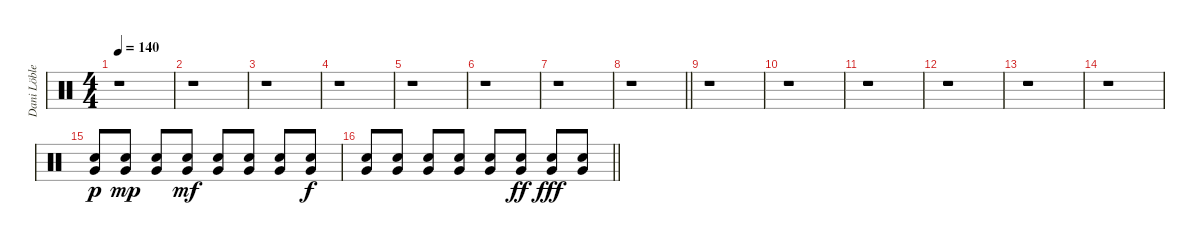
\track ("Dani Löble" "Dani Löble") {instrument percussion}
\staff {score}
\articulation defaults
\ts (4 4)
\section ("" "")
\tempo 140
\clef neutral
\ks c
r.1{dy p} |
r.1 |
r.1 |
r.1 |
r.1 |
r.1 |
r.1 |
\barLineRight lightlight
r.1 |
\section ("" "")
r.1 |
r.1 |
r.1 |
r.1 |
r.1 |
r.1 |
("Electric Snare (hit)" "Very Low Tom (hit)").8 ("Electric Snare (hit)" "Very Low Tom (hit)").8{dy mp} ("Electric Snare (hit)" "Very Low Tom (hit)").8 ("Electric Snare (hit)" "Very Low Tom (hit)").8{dy mf} ("Electric Snare (hit)" "Very Low Tom (hit)").8 ("Electric Snare (hit)" "Very Low Tom (hit)").8 ("Electric Snare (hit)" "Very Low Tom (hit)").8 ("Electric Snare (hit)" "Very Low Tom (hit)").8{dy f} |
\barLineRight lightlight
("Electric Snare (hit)" "Very Low Tom (hit)").8 ("Electric Snare (hit)" "Very Low Tom (hit)").8 ("Electric Snare (hit)" "Very Low Tom (hit)").8 ("Electric Snare (hit)" "Very Low Tom (hit)").8 ("Electric Snare (hit)" "Very Low Tom (hit)").8 ("Electric Snare (hit)" "Very Low Tom (hit)").8{dy ff} ("Electric Snare (hit)" "Very Low Tom (hit)").8{dy fff} ("Electric Snare (hit)" "Very Low Tom (hit)").8
